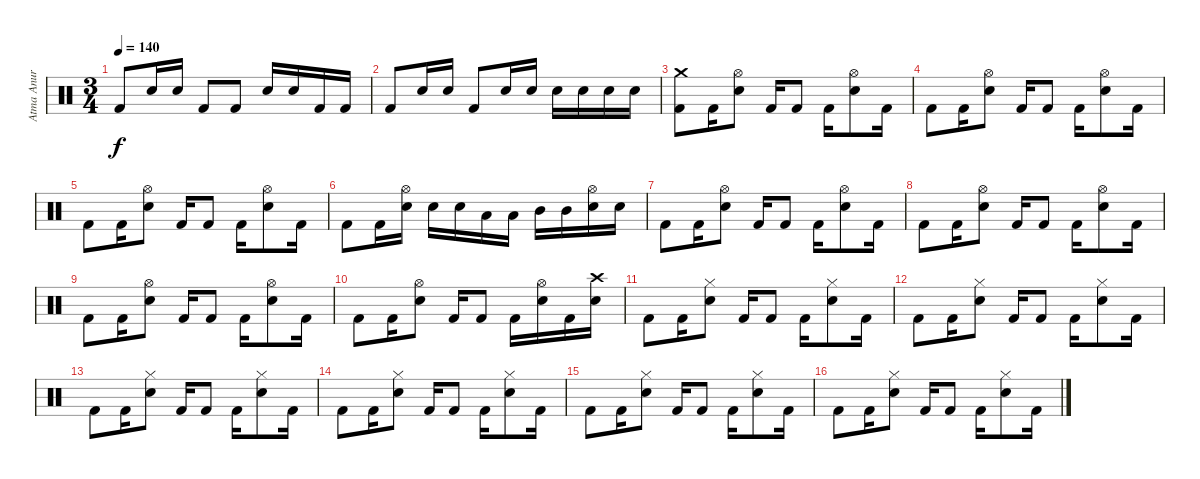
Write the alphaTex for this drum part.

\track ("Atma Anur" "Atma Anur") {instrument percussion}
\staff {score}
\articulation defaults
\ts (3 4)
\tempo 140
\clef neutral
\ks c "Kick (hit) 2".8{dy f} "Snare (hit) 2".16 "Snare (hit) 2".16 "Kick (hit) 2".8 "Kick (hit) 2".8 "Snare (hit) 2".16 "Snare (hit) 2".16 "Kick (hit) 2".16 "Kick (hit) 2".16
|
"Kick (hit) 2".8 "Snare (hit) 2".16 "Snare (hit) 2".16 "Kick (hit) 2".8 "Snare (hit) 2".16 "Snare (hit) 2".16 "Snare (hit) 2".16 "Snare (hit) 2".16 "Snare (hit) 2".16 "Snare (hit) 2".16 |
("Crash medium (hit)" "Kick (hit) 2").8 "Kick (hit) 2".16 ("Hi-Hat (open)" "Snare (hit) 2").8 "Kick (hit) 2".16 "Kick (hit) 2".8 "Kick (hit) 2".16 ("Hi-Hat (open)" "Snare (hit) 2").8 "Kick (hit) 2".16 |
"Kick (hit) 2".8 "Kick (hit) 2".16 ("Hi-Hat (open)" "Snare (hit) 2").8 "Kick (hit) 2".16 "Kick (hit) 2".8 "Kick (hit) 2".16 ("Hi-Hat (open)" "Snare (hit) 2").8 "Kick (hit) 2".16 |
"Kick (hit) 2".8 "Kick (hit) 2".16 ("Hi-Hat (open)" "Snare (hit) 2").8 "Kick (hit) 2".16 "Kick (hit) 2".8 "Kick (hit) 2".16 ("Hi-Hat (open)" "Snare (hit) 2").8 "Kick (hit) 2".16 |
"Kick (hit) 2".8 "Kick (hit) 2".16 ("Hi-Hat (open)" "Snare (hit) 2").16 "Snare (hit) 2".16 "Snare (hit) 2".16 "Low Tom (hit)".16 "Low Tom (hit)".16 "Mid Tom (hit)".16 "Mid Tom (hit)".16 ("Hi-Hat (open)" "Snare (hit) 2").16 "Snare (hit) 2".16 |
"Kick (hit) 2".8 "Kick (hit) 2".16 ("Hi-Hat (open)" "Snare (hit) 2").8 "Kick (hit) 2".16 "Kick (hit) 2".8 "Kick (hit) 2".16 ("Hi-Hat (open)" "Snare (hit) 2").8 "Kick (hit) 2".16 |
"Kick (hit) 2".8 "Kick (hit) 2".16 ("Hi-Hat (open)" "Snare (hit) 2").8 "Kick (hit) 2".16 "Kick (hit) 2".8 "Kick (hit) 2".16 ("Hi-Hat (open)" "Snare (hit) 2").8 "Kick (hit) 2".16 |
"Kick (hit) 2".8 "Kick (hit) 2".16 ("Hi-Hat (open)" "Snare (hit) 2").8 "Kick (hit) 2".16 "Kick (hit) 2".8 "Kick (hit) 2".16 ("Hi-Hat (open)" "Snare (hit) 2").8 "Kick (hit) 2".16 |
"Kick (hit) 2".8 "Kick (hit) 2".16 ("Hi-Hat (open)" "Snare (hit) 2").8 "Kick (hit) 2".16 "Kick (hit) 2".8 "Kick (hit) 2".16 ("Hi-Hat (open)" "Snare (hit) 2").16 "Kick (hit) 2".16 ("Crash high (hit)" "Snare (hit) 2").16 |
"Kick (hit) 2".8 "Kick (hit) 2".16 ("Hi-Hat (closed)" "Snare (hit) 2").8 "Kick (hit) 2".16 "Kick (hit) 2".8 "Kick (hit) 2".16 ("Hi-Hat (closed)" "Snare (hit) 2").8 "Kick (hit) 2".16 |
"Kick (hit) 2".8 "Kick (hit) 2".16 ("Hi-Hat (closed)" "Snare (hit) 2").8 "Kick (hit) 2".16 "Kick (hit) 2".8 "Kick (hit) 2".16 ("Hi-Hat (closed)" "Snare (hit) 2").8 "Kick (hit) 2".16 |
"Kick (hit) 2".8 "Kick (hit) 2".16 ("Hi-Hat (closed)" "Snare (hit) 2").8 "Kick (hit) 2".16 "Kick (hit) 2".8 "Kick (hit) 2".16 ("Hi-Hat (closed)" "Snare (hit) 2").8 "Kick (hit) 2".16 |
"Kick (hit) 2".8 "Kick (hit) 2".16 ("Hi-Hat (closed)" "Snare (hit) 2").8 "Kick (hit) 2".16 "Kick (hit) 2".8 "Kick (hit) 2".16 ("Hi-Hat (closed)" "Snare (hit) 2").8 "Kick (hit) 2".16 |
"Kick (hit) 2".8 "Kick (hit) 2".16 ("Hi-Hat (closed)" "Snare (hit) 2").8 "Kick (hit) 2".16 "Kick (hit) 2".8 "Kick (hit) 2".16 ("Hi-Hat (closed)" "Snare (hit) 2").8 "Kick (hit) 2".16 |
"Kick (hit) 2".8 "Kick (hit) 2".16 ("Hi-Hat (closed)" "Snare (hit) 2").8 "Kick (hit) 2".16 "Kick (hit) 2".8 "Kick (hit) 2".16 ("Hi-Hat (closed)" "Snare (hit) 2").8 "Kick (hit) 2".16
